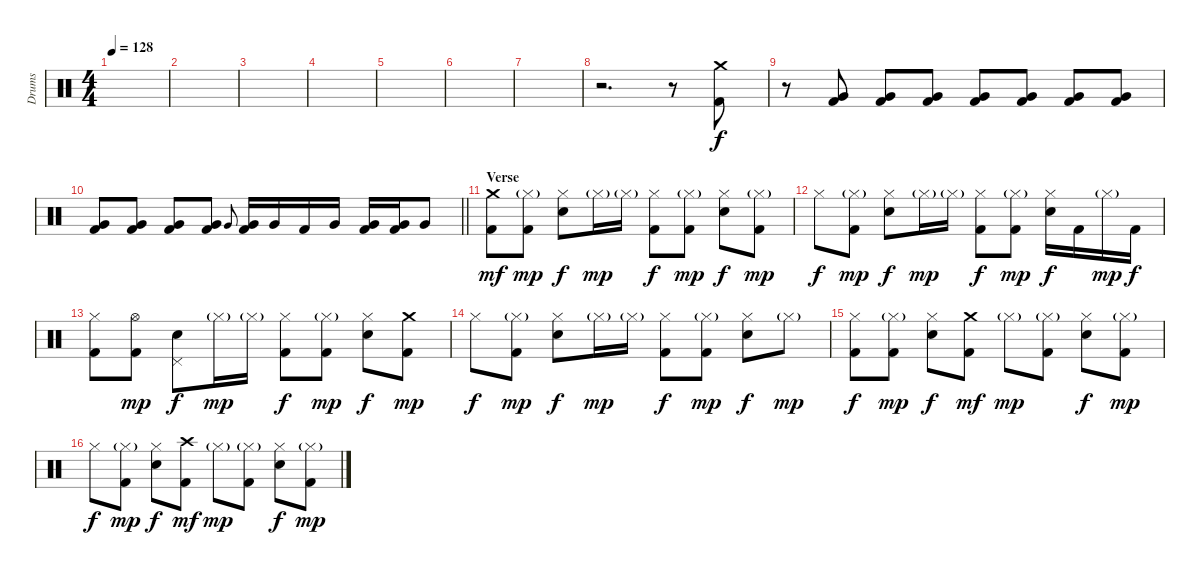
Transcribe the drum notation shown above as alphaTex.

\track ("Drums" "Drums") {instrument percussion}
\staff {score}
\articulation defaults
\ts (4 4)
\tempo 128
\clef neutral
\ks c
|
|
|
|
|
|
|
r.2{d} r.8 ("Crash medium (hit)" "Kick (hit) 2").8 |
r.8 ("Very Low Tom (hit)" "Kick (hit) 2").8 ("Very Low Tom (hit)" "Kick (hit) 2").8{volume 14} ("Very Low Tom (hit)" "Kick (hit) 2").8 ("Very Low Tom (hit)" "Kick (hit) 2").8 ("Very Low Tom (hit)" "Kick (hit) 2").8 ("Very Low Tom (hit)" "Kick (hit) 2").8 ("Very Low Tom (hit)" "Kick (hit) 2").8 |
\barLineRight lightlight
("Very Low Tom (hit)" "Kick (hit) 2").8 ("Very Low Tom (hit)" "Kick (hit) 2").8 ("Very Low Tom (hit)" "Kick (hit) 2").8 ("Very Low Tom (hit)" "Kick (hit) 2").8 "Very Low Tom (hit)".8{gr onbeat} ("Very Low Tom (hit)" "Kick (hit) 2").16 "Very Low Tom (hit)".16 "Kick (hit) 2".16 "Very Low Tom (hit)".16 ("Very Low Tom (hit)" "Kick (hit) 2").16 ("Very Low Tom (hit)" "Kick (hit) 2").16 "Very Low Tom (hit)".8 |
\section ("" "Verse")
("Crash medium (hit)" "Kick (hit) 2").8{dy mf} ("Hi-Hat (closed)"{g} "Kick (hit) 2").8{dy mp} ("Hi-Hat (closed)" "Electric Snare (hit)").8{dy f} "Hi-Hat (closed)"{g}.16{dy mp} "Hi-Hat (closed)"{g}.16 ("Hi-Hat (closed)" "Kick (hit) 2").8{dy f} ("Hi-Hat (closed)"{g} "Kick (hit) 2").8{dy mp} ("Hi-Hat (closed)" "Electric Snare (hit)").8{dy f} ("Hi-Hat (closed)"{g} "Kick (hit) 2").8{dy mp} |
"Hi-Hat (closed)".8{dy f} ("Hi-Hat (closed)"{g} "Kick (hit) 2").8{dy mp} ("Hi-Hat (closed)" "Electric Snare (hit)").8{dy f} "Hi-Hat (closed)"{g}.16{dy mp} "Hi-Hat (closed)"{g}.16 ("Hi-Hat (closed)" "Kick (hit) 2").8{dy f} ("Hi-Hat (closed)"{g} "Kick (hit) 2").8{dy mp} ("Hi-Hat (closed)" "Electric Snare (hit)").16{dy f} "Kick (hit) 2".16 "Hi-Hat (closed)"{g}.16{dy mp} "Kick (hit) 2".16{dy f} |
("Hi-Hat (closed)" "Kick (hit) 2").8 ("Hi-Hat (open)" "Kick (hit) 2").8{dy mp} ("Pedal Hi-Hat (hit)" "Electric Snare (hit)").8{dy f} "Hi-Hat (closed)"{g}.16{dy mp} "Hi-Hat (closed)"{g}.16 ("Hi-Hat (closed)" "Kick (hit) 2").8{dy f} ("Hi-Hat (closed)"{g} "Kick (hit) 2").8{dy mp} ("Hi-Hat (closed)" "Electric Snare (hit)").8{dy f} ("Crash medium (hit)" "Kick (hit) 2").8{dy mp} |
"Hi-Hat (closed)".8{dy f} ("Hi-Hat (closed)"{g} "Kick (hit) 2").8{dy mp} ("Hi-Hat (closed)" "Electric Snare (hit)").8{dy f} "Hi-Hat (closed)"{g}.16{dy mp} "Hi-Hat (closed)"{g}.16 ("Hi-Hat (closed)" "Kick (hit) 2").8{dy f} ("Hi-Hat (closed)"{g} "Kick (hit) 2").8{dy mp} ("Hi-Hat (closed)" "Electric Snare (hit)").8{dy f} "Hi-Hat (closed)"{g}.8{dy mp} |
("Hi-Hat (closed)" "Kick (hit) 2").8{dy f} ("Hi-Hat (closed)"{g} "Kick (hit) 2").8{dy mp} ("Hi-Hat (closed)" "Electric Snare (hit)").8{dy f} ("Crash medium (hit)" "Kick (hit) 2").8{dy mf} "Hi-Hat (closed)"{g}.8{dy mp} ("Hi-Hat (closed)"{g} "Kick (hit) 2").8 ("Hi-Hat (closed)" "Electric Snare (hit)").8{dy f} ("Hi-Hat (closed)"{g} "Kick (hit) 2").8{dy mp} |
"Hi-Hat (closed)".8{dy f} ("Hi-Hat (closed)"{g} "Kick (hit) 2").8{dy mp} ("Hi-Hat (closed)" "Electric Snare (hit)").8{dy f} ("Crash high (hit)" "Kick (hit) 2").8{dy mf} "Hi-Hat (closed)"{g}.8{dy mp} ("Hi-Hat (closed)"{g} "Kick (hit) 2").8 ("Hi-Hat (closed)" "Electric Snare (hit)").8{dy f} ("Hi-Hat (closed)"{g} "Kick (hit) 2").8{dy mp}
